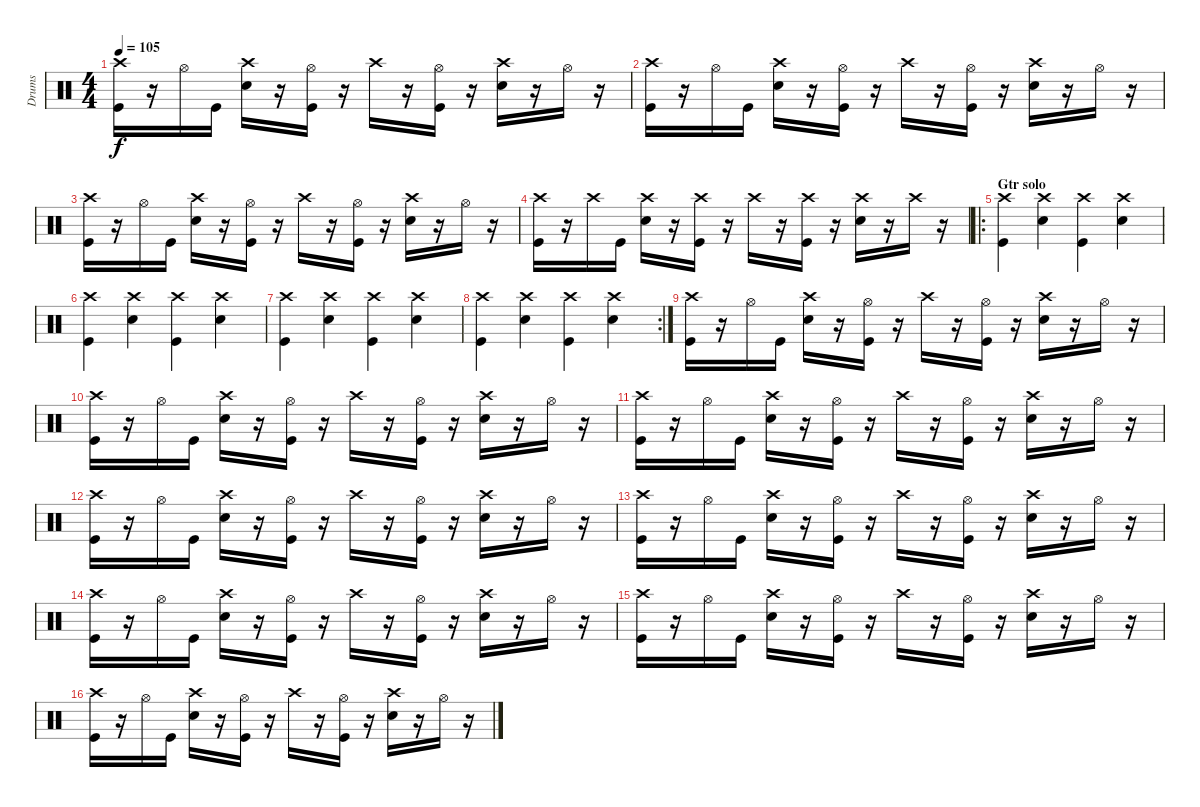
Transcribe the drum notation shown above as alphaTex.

\track ("Drums" "Drums") {instrument percussion}
\staff {score}
\articulation defaults
\ts (4 4)
\tempo 105
\clef neutral
\ks c
("Crash high (hit)" "Kick (hit)").16{dy f} r.16 "Hi-Hat (open)".16 "Kick (hit)".16 ("Crash high (hit)" "Snare (hit) 2").16 r.16 ("Hi-Hat (open)" "Kick (hit)").16 r.16 "Crash high (hit)".16 r.16 ("Hi-Hat (open)" "Kick (hit)").16 r.16 ("Crash high (hit)" "Snare (hit) 2").16 r.16 "Hi-Hat (open)".16 r.16 |
("Crash high (hit)" "Kick (hit)").16 r.16 "Hi-Hat (open)".16 "Kick (hit)".16 ("Crash high (hit)" "Snare (hit) 2").16 r.16 ("Hi-Hat (open)" "Kick (hit)").16 r.16 "Crash high (hit)".16 r.16 ("Hi-Hat (open)" "Kick (hit)").16 r.16 ("Crash high (hit)" "Snare (hit) 2").16 r.16 "Hi-Hat (open)".16 r.16 |
("Crash high (hit)" "Kick (hit)").16 r.16 "Hi-Hat (open)".16 "Kick (hit)".16 ("Crash high (hit)" "Snare (hit) 2").16 r.16 ("Hi-Hat (open)" "Kick (hit)").16 r.16 "Crash high (hit)".16 r.16 ("Hi-Hat (open)" "Kick (hit)").16 r.16 ("Crash high (hit)" "Snare (hit) 2").16 r.16 "Hi-Hat (open)".16 r.16 |
("Crash high (hit)" "Kick (hit)").16 r.16 "Crash high (hit)".16 "Kick (hit)".16 ("Crash high (hit)" "Snare (hit) 2").16 r.16 ("Crash high (hit)" "Kick (hit)").16 r.16 "Crash high (hit)".16 r.16 ("Crash high (hit)" "Kick (hit)").16 r.16 ("Crash high (hit)" "Snare (hit) 2").16 r.16 "Crash high (hit)".16 r.16 |
\ro
\section ("" "Gtr solo ")
("Crash high (hit)" "Kick (hit)").4 ("Crash high (hit)" "Snare (hit) 2").4 ("Crash high (hit)" "Kick (hit)").4 ("Crash high (hit)" "Snare (hit) 2").4 |
("Crash high (hit)" "Kick (hit)").4 ("Crash high (hit)" "Snare (hit) 2").4 ("Crash high (hit)" "Kick (hit)").4 ("Crash high (hit)" "Snare (hit) 2").4 |
("Crash high (hit)" "Kick (hit)").4 ("Crash high (hit)" "Snare (hit) 2").4 ("Crash high (hit)" "Kick (hit)").4 ("Crash high (hit)" "Snare (hit) 2").4 |
\rc 2
("Crash high (hit)" "Kick (hit)").4 ("Crash high (hit)" "Snare (hit) 2").4 ("Crash high (hit)" "Kick (hit)").4 ("Crash high (hit)" "Snare (hit) 2").4 |
("Crash high (hit)" "Kick (hit)").16 r.16 "Hi-Hat (open)".16 "Kick (hit)".16 ("Crash high (hit)" "Snare (hit) 2").16 r.16 ("Hi-Hat (open)" "Kick (hit)").16 r.16 "Crash high (hit)".16 r.16 ("Hi-Hat (open)" "Kick (hit)").16 r.16 ("Crash high (hit)" "Snare (hit) 2").16 r.16 "Hi-Hat (open)".16 r.16 |
("Crash high (hit)" "Kick (hit)").16 r.16 "Hi-Hat (open)".16 "Kick (hit)".16 ("Crash high (hit)" "Snare (hit) 2").16 r.16 ("Hi-Hat (open)" "Kick (hit)").16 r.16 "Crash high (hit)".16 r.16 ("Hi-Hat (open)" "Kick (hit)").16 r.16 ("Crash high (hit)" "Snare (hit) 2").16 r.16 "Hi-Hat (open)".16 r.16 |
("Crash high (hit)" "Kick (hit)").16 r.16 "Hi-Hat (open)".16 "Kick (hit)".16 ("Crash high (hit)" "Snare (hit) 2").16 r.16 ("Hi-Hat (open)" "Kick (hit)").16 r.16 "Crash high (hit)".16 r.16 ("Hi-Hat (open)" "Kick (hit)").16 r.16 ("Crash high (hit)" "Snare (hit) 2").16 r.16 "Hi-Hat (open)".16 r.16 |
("Crash high (hit)" "Kick (hit)").16 r.16 "Hi-Hat (open)".16 "Kick (hit)".16 ("Crash high (hit)" "Snare (hit) 2").16 r.16 ("Hi-Hat (open)" "Kick (hit)").16 r.16 "Crash high (hit)".16 r.16 ("Hi-Hat (open)" "Kick (hit)").16 r.16 ("Crash high (hit)" "Snare (hit) 2").16 r.16 "Hi-Hat (open)".16 r.16 |
("Crash high (hit)" "Kick (hit)").16 r.16 "Hi-Hat (open)".16 "Kick (hit)".16 ("Crash high (hit)" "Snare (hit) 2").16 r.16 ("Hi-Hat (open)" "Kick (hit)").16 r.16 "Crash high (hit)".16 r.16 ("Hi-Hat (open)" "Kick (hit)").16 r.16 ("Crash high (hit)" "Snare (hit) 2").16 r.16 "Hi-Hat (open)".16 r.16 |
("Crash high (hit)" "Kick (hit)").16 r.16 "Hi-Hat (open)".16 "Kick (hit)".16 ("Crash high (hit)" "Snare (hit) 2").16 r.16 ("Hi-Hat (open)" "Kick (hit)").16 r.16 "Crash high (hit)".16 r.16 ("Hi-Hat (open)" "Kick (hit)").16 r.16 ("Crash high (hit)" "Snare (hit) 2").16 r.16 "Hi-Hat (open)".16 r.16 |
("Crash high (hit)" "Kick (hit)").16 r.16 "Hi-Hat (open)".16 "Kick (hit)".16 ("Crash high (hit)" "Snare (hit) 2").16 r.16 ("Hi-Hat (open)" "Kick (hit)").16 r.16 "Crash high (hit)".16 r.16 ("Hi-Hat (open)" "Kick (hit)").16 r.16 ("Crash high (hit)" "Snare (hit) 2").16 r.16 "Hi-Hat (open)".16 r.16 |
("Crash high (hit)" "Kick (hit)").16 r.16 "Hi-Hat (open)".16 "Kick (hit)".16 ("Crash high (hit)" "Snare (hit) 2").16 r.16 ("Hi-Hat (open)" "Kick (hit)").16 r.16 "Crash high (hit)".16 r.16 ("Hi-Hat (open)" "Kick (hit)").16 r.16 ("Crash high (hit)" "Snare (hit) 2").16 r.16 "Hi-Hat (open)".16 r.16
